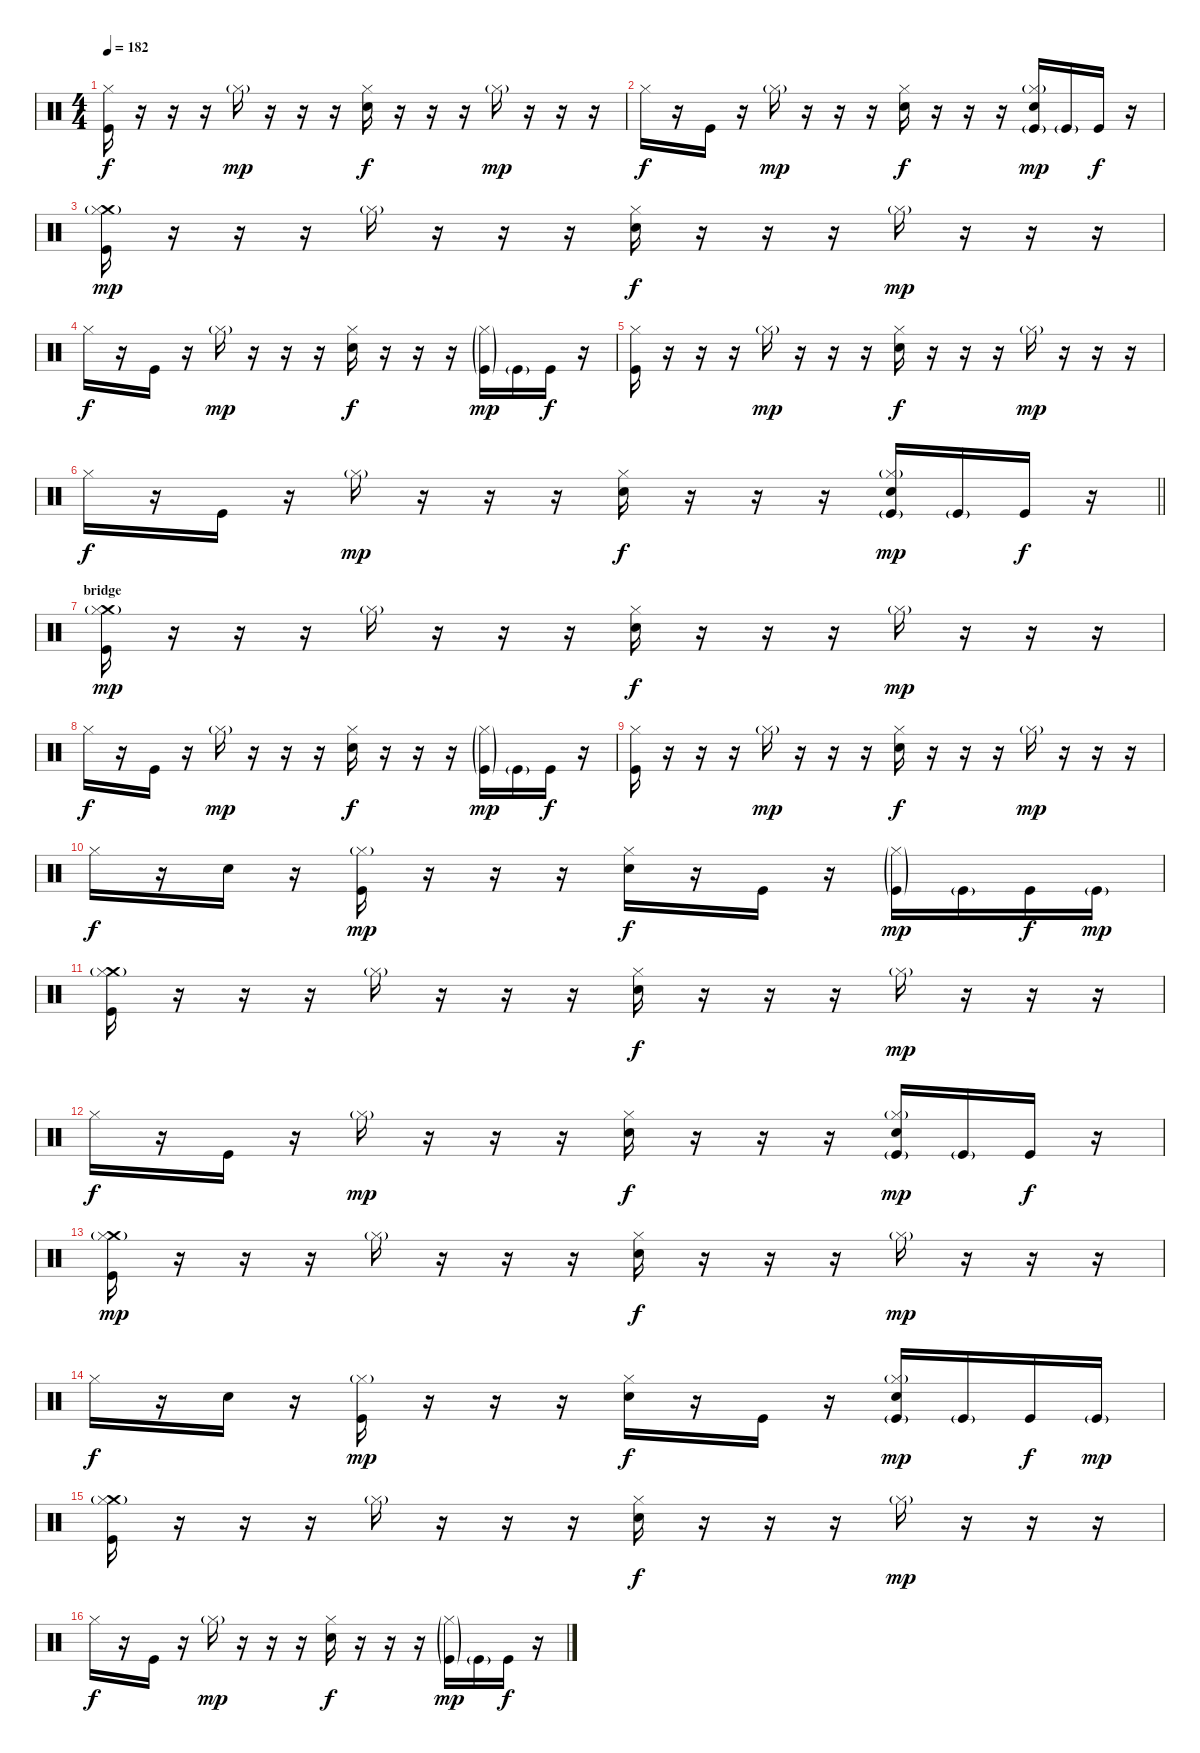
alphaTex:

\track "" {instrument percussion}
\staff {score}
\articulation defaults
\ts (4 4)
\tempo 182
\clef neutral
\ks c
("Kick (hit)" "Hi-Hat (closed)").16{dy f} r.16 r.16 r.16 "Hi-Hat (closed)"{g}.16{dy mp} r.16 r.16 r.16 ("Hi-Hat (closed)" "Electric Snare (hit)").16{dy f} r.16 r.16 r.16 "Hi-Hat (closed)"{g}.16{dy mp} r.16 r.16 r.16 |
"Hi-Hat (closed)".16{dy f} r.16 "Kick (hit)".16 r.16 "Hi-Hat (closed)"{g}.16{dy mp} r.16 r.16 r.16 ("Hi-Hat (closed)" "Electric Snare (hit)").16{dy f} r.16 r.16 r.16 ("Kick (hit)"{g} "Hi-Hat (closed)"{g} "Electric Snare (hit)").16{dy mp} "Kick (hit)"{g}.16 "Kick (hit)".16{dy f} r.16 |
("Crash medium (hit)"{g} "Kick (hit)" "Hi-Hat (closed)").16{dy mp} r.16 r.16 r.16 "Hi-Hat (closed)"{g}.16 r.16 r.16 r.16 ("Hi-Hat (closed)" "Electric Snare (hit)").16{dy f} r.16 r.16 r.16 "Hi-Hat (closed)"{g}.16{dy mp} r.16 r.16 r.16 |
"Hi-Hat (closed)".16{dy f} r.16 "Kick (hit)".16 r.16 "Hi-Hat (closed)"{g}.16{dy mp} r.16 r.16 r.16 ("Hi-Hat (closed)" "Electric Snare (hit)").16{dy f} r.16 r.16 r.16 ("Kick (hit)"{g} "Hi-Hat (closed)"{g}).16{dy mp} "Kick (hit)"{g}.16 "Kick (hit)".16{dy f} r.16 |
("Kick (hit)" "Hi-Hat (closed)").16 r.16 r.16 r.16 "Hi-Hat (closed)"{g}.16{dy mp} r.16 r.16 r.16 ("Hi-Hat (closed)" "Electric Snare (hit)").16{dy f} r.16 r.16 r.16 "Hi-Hat (closed)"{g}.16{dy mp} r.16 r.16 r.16 |
\barLineRight lightlight "Hi-Hat (closed)".16{dy f}
r.16 "Kick (hit)".16 r.16 "Hi-Hat (closed)"{g}.16{dy mp} r.16 r.16 r.16 ("Hi-Hat (closed)" "Electric Snare (hit)").16{dy f} r.16 r.16 r.16 ("Kick (hit)"{g} "Hi-Hat (closed)"{g} "Electric Snare (hit)").16{dy mp} "Kick (hit)"{g}.16 "Kick (hit)".16{dy f} r.16 |
\section ("" "bridge")
("Crash medium (hit)"{g} "Kick (hit)" "Hi-Hat (closed)").16{dy mp} r.16 r.16 r.16 "Hi-Hat (closed)"{g}.16 r.16 r.16 r.16 ("Hi-Hat (closed)" "Electric Snare (hit)").16{dy f} r.16 r.16 r.16 "Hi-Hat (closed)"{g}.16{dy mp} r.16 r.16 r.16 |
"Hi-Hat (closed)".16{dy f} r.16 "Kick (hit)".16 r.16 "Hi-Hat (closed)"{g}.16{dy mp} r.16 r.16 r.16 ("Hi-Hat (closed)" "Electric Snare (hit)").16{dy f} r.16 r.16 r.16 ("Kick (hit)"{g} "Hi-Hat (closed)"{g}).16{dy mp} "Kick (hit)"{g}.16 "Kick (hit)".16{dy f} r.16 |
("Kick (hit)" "Hi-Hat (closed)").16 r.16 r.16 r.16 "Hi-Hat (closed)"{g}.16{dy mp} r.16 r.16 r.16 ("Hi-Hat (closed)" "Electric Snare (hit)").16{dy f} r.16 r.16 r.16 "Hi-Hat (closed)"{g}.16{dy mp} r.16 r.16 r.16 |
"Hi-Hat (closed)".16{dy f} r.16 "Electric Snare (hit)".16 r.16 ("Kick (hit)" "Hi-Hat (closed)"{g}).16{dy mp} r.16 r.16 r.16 ("Hi-Hat (closed)" "Electric Snare (hit)").16{dy f} r.16 "Kick (hit)".16 r.16 ("Kick (hit)"{g} "Hi-Hat (closed)"{g}).16{dy mp} "Kick (hit)"{g}.16 "Kick (hit)".16{dy f} "Kick (hit)"{g}.16{dy mp} |
("Crash medium (hit)"{g} "Kick (hit)" "Hi-Hat (closed)").16 r.16 r.16 r.16 "Hi-Hat (closed)"{g}.16 r.16 r.16 r.16 ("Hi-Hat (closed)" "Electric Snare (hit)").16{dy f} r.16 r.16 r.16 "Hi-Hat (closed)"{g}.16{dy mp} r.16 r.16 r.16 |
"Hi-Hat (closed)".16{dy f} r.16 "Kick (hit)".16 r.16 "Hi-Hat (closed)"{g}.16{dy mp} r.16 r.16 r.16 ("Hi-Hat (closed)" "Electric Snare (hit)").16{dy f} r.16 r.16 r.16 ("Kick (hit)"{g} "Hi-Hat (closed)"{g} "Electric Snare (hit)").16{dy mp} "Kick (hit)"{g}.16 "Kick (hit)".16{dy f} r.16 |
("Crash medium (hit)"{g} "Kick (hit)" "Hi-Hat (closed)").16{dy mp} r.16 r.16 r.16 "Hi-Hat (closed)"{g}.16 r.16 r.16 r.16 ("Hi-Hat (closed)" "Electric Snare (hit)").16{dy f} r.16 r.16 r.16 "Hi-Hat (closed)"{g}.16{dy mp} r.16 r.16 r.16 |
"Hi-Hat (closed)".16{dy f} r.16 "Electric Snare (hit)".16 r.16 ("Kick (hit)" "Hi-Hat (closed)"{g}).16{dy mp} r.16 r.16 r.16 ("Hi-Hat (closed)" "Electric Snare (hit)").16{dy f} r.16 "Kick (hit)".16 r.16 ("Kick (hit)"{g} "Hi-Hat (closed)"{g} "Electric Snare (hit)").16{dy mp} "Kick (hit)"{g}.16 "Kick (hit)".16{dy f} "Kick (hit)"{g}.16{dy mp} |
("Crash medium (hit)"{g} "Kick (hit)" "Hi-Hat (closed)").16 r.16 r.16 r.16 "Hi-Hat (closed)"{g}.16 r.16 r.16 r.16 ("Hi-Hat (closed)" "Electric Snare (hit)").16{dy f} r.16 r.16 r.16 "Hi-Hat (closed)"{g}.16{dy mp} r.16 r.16 r.16 |
"Hi-Hat (closed)".16{dy f} r.16 "Kick (hit)".16 r.16 "Hi-Hat (closed)"{g}.16{dy mp} r.16 r.16 r.16 ("Hi-Hat (closed)" "Electric Snare (hit)").16{dy f} r.16 r.16 r.16 ("Kick (hit)"{g} "Hi-Hat (closed)"{g}).16{dy mp} "Kick (hit)"{g}.16 "Kick (hit)".16{dy f} r.16
